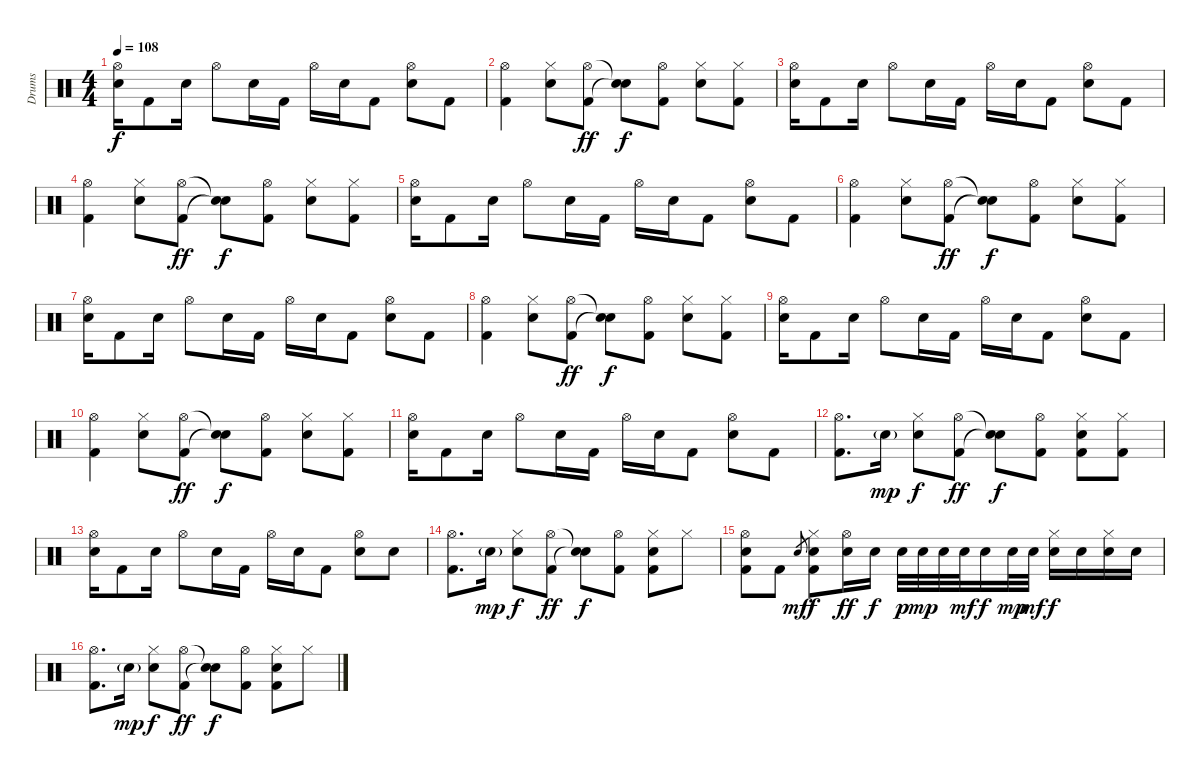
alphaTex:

\track ("Drums" "Drums") {instrument percussion}
\staff {score}
\articulation defaults
\ts (4 4)
\tempo 108
\clef neutral
\ks c
("Hi-Hat (open)" "Electric Snare (hit)").16{dy f} "Kick (hit) 2".8 "Electric Snare (hit)".16 "Hi-Hat (open)".8 "Electric Snare (hit)".16 "Kick (hit) 2".16 "Hi-Hat (open)".16 "Electric Snare (hit)".16 "Kick (hit) 2".8 ("Hi-Hat (open)" "Electric Snare (hit)").8 "Kick (hit) 2".8 |
("Hi-Hat (open)" "Kick (hit) 2").4 ("Hi-Hat (closed)" "Electric Snare (hit)").8 ("Hi-Hat (open)" "Kick (hit) 2").8{dy ff} ("Snare (hit)"{t} "Snare (hit)"{t}).8{dy f} ("Hi-Hat (open)" "Kick (hit) 2").8 ("Hi-Hat (closed)" "Electric Snare (hit)").8 ("Hi-Hat (closed)" "Kick (hit) 2").8 |
("Hi-Hat (open)" "Electric Snare (hit)").16 "Kick (hit) 2".8 "Electric Snare (hit)".16 "Hi-Hat (open)".8 "Electric Snare (hit)".16 "Kick (hit) 2".16 "Hi-Hat (open)".16 "Electric Snare (hit)".16 "Kick (hit) 2".8 ("Hi-Hat (open)" "Electric Snare (hit)").8 "Kick (hit) 2".8 |
("Hi-Hat (open)" "Kick (hit) 2").4 ("Hi-Hat (closed)" "Electric Snare (hit)").8 ("Hi-Hat (open)" "Kick (hit) 2").8{dy ff} ("Snare (hit)"{t} "Snare (hit)"{t}).8{dy f} ("Hi-Hat (open)" "Kick (hit) 2").8 ("Hi-Hat (closed)" "Electric Snare (hit)").8 ("Hi-Hat (closed)" "Kick (hit) 2").8 |
("Hi-Hat (open)" "Electric Snare (hit)").16 "Kick (hit) 2".8 "Electric Snare (hit)".16 "Hi-Hat (open)".8 "Electric Snare (hit)".16 "Kick (hit) 2".16 "Hi-Hat (open)".16 "Electric Snare (hit)".16 "Kick (hit) 2".8 ("Hi-Hat (open)" "Electric Snare (hit)").8 "Kick (hit) 2".8 |
("Hi-Hat (open)" "Kick (hit) 2").4 ("Hi-Hat (closed)" "Electric Snare (hit)").8 ("Hi-Hat (open)" "Kick (hit) 2").8{dy ff} ("Snare (hit)"{t} "Snare (hit)"{t}).8{dy f} ("Hi-Hat (open)" "Kick (hit) 2").8 ("Hi-Hat (closed)" "Electric Snare (hit)").8 ("Hi-Hat (closed)" "Kick (hit) 2").8 |
("Hi-Hat (open)" "Electric Snare (hit)").16 "Kick (hit) 2".8 "Electric Snare (hit)".16 "Hi-Hat (open)".8 "Electric Snare (hit)".16 "Kick (hit) 2".16 "Hi-Hat (open)".16 "Electric Snare (hit)".16 "Kick (hit) 2".8 ("Hi-Hat (open)" "Electric Snare (hit)").8 "Kick (hit) 2".8 |
("Hi-Hat (open)" "Kick (hit) 2").4 ("Hi-Hat (closed)" "Electric Snare (hit)").8 ("Hi-Hat (open)" "Kick (hit) 2").8{dy ff} ("Snare (hit)"{t} "Snare (hit)"{t}).8{dy f} ("Hi-Hat (open)" "Kick (hit) 2").8 ("Hi-Hat (closed)" "Electric Snare (hit)").8 ("Hi-Hat (closed)" "Kick (hit) 2").8 |
("Hi-Hat (open)" "Electric Snare (hit)").16 "Kick (hit) 2".8 "Electric Snare (hit)".16 "Hi-Hat (open)".8 "Electric Snare (hit)".16 "Kick (hit) 2".16 "Hi-Hat (open)".16 "Electric Snare (hit)".16 "Kick (hit) 2".8 ("Hi-Hat (open)" "Electric Snare (hit)").8 "Kick (hit) 2".8 |
("Hi-Hat (open)" "Kick (hit) 2").4 ("Hi-Hat (closed)" "Electric Snare (hit)").8 ("Hi-Hat (open)" "Kick (hit) 2").8{dy ff} ("Snare (hit)"{t} "Snare (hit)"{t}).8{dy f} ("Hi-Hat (open)" "Kick (hit) 2").8 ("Hi-Hat (closed)" "Electric Snare (hit)").8 ("Hi-Hat (closed)" "Kick (hit) 2").8 |
("Hi-Hat (open)" "Electric Snare (hit)").16 "Kick (hit) 2".8 "Electric Snare (hit)".16 "Hi-Hat (open)".8 "Electric Snare (hit)".16 "Kick (hit) 2".16 "Hi-Hat (open)".16 "Electric Snare (hit)".16 "Kick (hit) 2".8 ("Hi-Hat (open)" "Electric Snare (hit)").8 "Kick (hit) 2".8 |
("Hi-Hat (open)" "Kick (hit) 2").8{d} "Electric Snare (hit)"{g}.16{dy mp} ("Hi-Hat (closed)" "Electric Snare (hit)").8{dy f} ("Hi-Hat (open)" "Kick (hit) 2").8{dy ff} ("Snare (hit)"{t} "Snare (hit)"{t}).8{dy f} ("Hi-Hat (open)" "Kick (hit) 2").8 ("Hi-Hat (closed)" "Electric Snare (hit)" "Kick (hit) 2").8 ("Hi-Hat (closed)" "Kick (hit) 2").8 |
("Hi-Hat (open)" "Electric Snare (hit)").16 "Kick (hit) 2".8 "Electric Snare (hit)".16 "Hi-Hat (open)".8 "Electric Snare (hit)".16 "Kick (hit) 2".16 "Hi-Hat (open)".16 "Electric Snare (hit)".16 "Kick (hit) 2".8 ("Hi-Hat (open)" "Electric Snare (hit)").8 "Electric Snare (hit)".8 |
("Hi-Hat (open)" "Kick (hit) 2").8{d} "Electric Snare (hit)"{g}.16{dy mp} ("Hi-Hat (closed)" "Electric Snare (hit)").8{dy f} ("Hi-Hat (open)" "Kick (hit) 2").8{dy ff} ("Snare (hit)"{t} "Snare (hit)"{t}).8{dy f} ("Hi-Hat (open)" "Kick (hit) 2").8 ("Hi-Hat (closed)" "Electric Snare (hit)" "Kick (hit) 2").8 "Hi-Hat (closed)".8 |
("Hi-Hat (open)" "Electric Snare (hit)" "Kick (hit) 2").8 "Kick (hit) 2".8 "Electric Snare (hit)".8{gr dy mf} ("Hi-Hat (closed)" "Electric Snare (hit)" "Kick (hit) 2").8{dy f} ("Hi-Hat (open)" "Electric Snare (hit)").16{dy ff} "Electric Snare (hit)".16{dy f} "Electric Snare (hit)".32{dy p} "Electric Snare (hit)".32{dy mp} "Electric Snare (hit)".32 "Electric Snare (hit)".32{dy mf} "Electric Snare (hit)".16{dy f} "Electric Snare (hit)".32{dy mp} "Electric Snare (hit)".32{dy mf} ("Hi-Hat (closed)" "Electric Snare (hit)").16{dy f} "Electric Snare (hit)".16 ("Hi-Hat (closed)" "Electric Snare (hit)").16 "Electric Snare (hit)".16 |
("Hi-Hat (open)" "Kick (hit) 2").8{d} "Electric Snare (hit)"{g}.16{dy mp} ("Hi-Hat (closed)" "Electric Snare (hit)").8{dy f} ("Hi-Hat (open)" "Kick (hit) 2").8{dy ff} ("Snare (hit)"{t} "Snare (hit)"{t}).8{dy f} ("Hi-Hat (open)" "Kick (hit) 2").8 ("Hi-Hat (closed)" "Electric Snare (hit)" "Kick (hit) 2").8 "Hi-Hat (closed)".8
